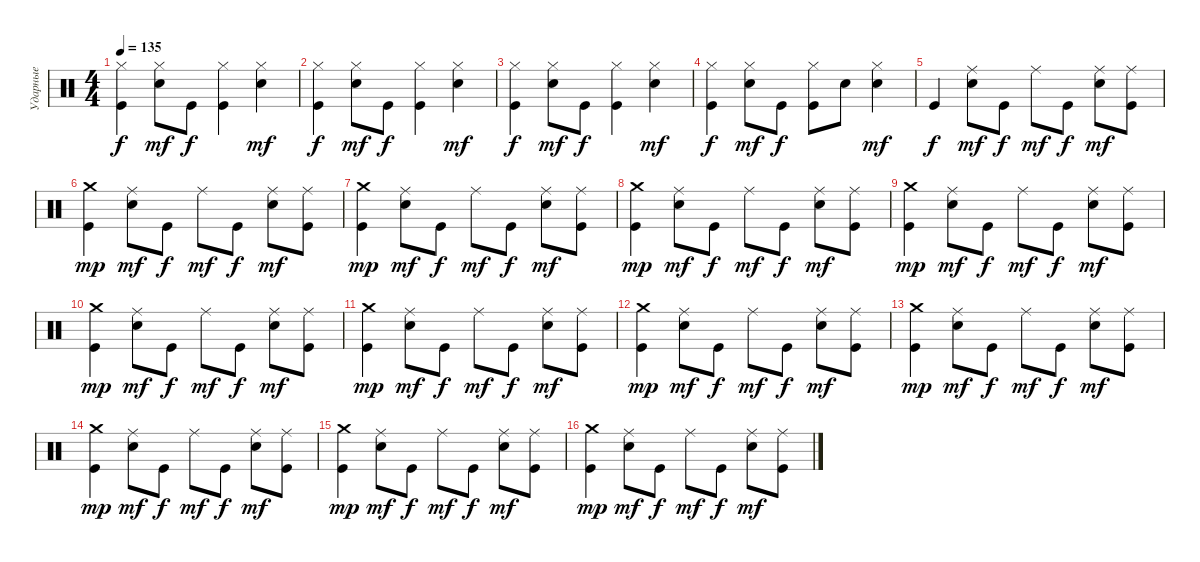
\track ("Ударные" "Ударные") {instrument percussion}
\staff {score}
\articulation defaults
\ts (4 4)
\tempo 135
\clef neutral
\ks c
("Hi-Hat (closed)" "Kick (hit)").4{dy f} ("Hi-Hat (closed)" "Electric Snare (hit)").8{dy mf} "Kick (hit)".8{dy f} ("Hi-Hat (closed)" "Kick (hit)").4 ("Hi-Hat (closed)" "Electric Snare (hit)").4{dy mf} |
("Hi-Hat (closed)" "Kick (hit)").4{dy f} ("Hi-Hat (closed)" "Electric Snare (hit)").8{dy mf} "Kick (hit)".8{dy f} ("Hi-Hat (closed)" "Kick (hit)").4 ("Hi-Hat (closed)" "Electric Snare (hit)").4{dy mf} |
("Hi-Hat (closed)" "Kick (hit)").4{dy f} ("Hi-Hat (closed)" "Electric Snare (hit)").8{dy mf} "Kick (hit)".8{dy f} ("Hi-Hat (closed)" "Kick (hit)").4 ("Hi-Hat (closed)" "Electric Snare (hit)").4{dy mf} |
("Hi-Hat (closed)" "Kick (hit)").4{dy f} ("Hi-Hat (closed)" "Electric Snare (hit)").8{dy mf} "Kick (hit)".8{dy f} ("Hi-Hat (closed)" "Kick (hit)").8 "Electric Snare (hit)".8 ("Hi-Hat (closed)" "Electric Snare (hit)").4{dy mf} |
"Kick (hit)".4{dy f} ("Ride (middle)" "Electric Snare (hit)").8{dy mf} "Kick (hit)".8{dy f} "Ride (middle)".8{dy mf} "Kick (hit)".8{dy f} ("Ride (middle)" "Electric Snare (hit)").8{dy mf} ("Ride (middle)" "Kick (hit)").8 |
("Crash medium (hit)" "Kick (hit)").4{dy mp} ("Ride (middle)" "Electric Snare (hit)").8{dy mf} "Kick (hit)".8{dy f} "Ride (middle)".8{dy mf} "Kick (hit)".8{dy f} ("Ride (middle)" "Electric Snare (hit)").8{dy mf} ("Ride (middle)" "Kick (hit)").8 |
("Crash medium (hit)" "Kick (hit)").4{dy mp} ("Ride (middle)" "Electric Snare (hit)").8{dy mf} "Kick (hit)".8{dy f} "Ride (middle)".8{dy mf} "Kick (hit)".8{dy f} ("Ride (middle)" "Electric Snare (hit)").8{dy mf} ("Ride (middle)" "Kick (hit)").8 |
("Crash medium (hit)" "Kick (hit)").4{dy mp} ("Ride (middle)" "Electric Snare (hit)").8{dy mf} "Kick (hit)".8{dy f} "Ride (middle)".8{dy mf} "Kick (hit)".8{dy f} ("Ride (middle)" "Electric Snare (hit)").8{dy mf} ("Ride (middle)" "Kick (hit)").8 |
("Crash medium (hit)" "Kick (hit)").4{dy mp} ("Ride (middle)" "Electric Snare (hit)").8{dy mf} "Kick (hit)".8{dy f} "Ride (middle)".8{dy mf} "Kick (hit)".8{dy f} ("Ride (middle)" "Electric Snare (hit)").8{dy mf} ("Ride (middle)" "Kick (hit)").8 |
("Crash medium (hit)" "Kick (hit)").4{dy mp} ("Ride (middle)" "Electric Snare (hit)").8{dy mf} "Kick (hit)".8{dy f} "Ride (middle)".8{dy mf} "Kick (hit)".8{dy f} ("Ride (middle)" "Electric Snare (hit)").8{dy mf} ("Ride (middle)" "Kick (hit)").8 |
("Crash medium (hit)" "Kick (hit)").4{dy mp} ("Ride (middle)" "Electric Snare (hit)").8{dy mf} "Kick (hit)".8{dy f} "Ride (middle)".8{dy mf} "Kick (hit)".8{dy f} ("Ride (middle)" "Electric Snare (hit)").8{dy mf} ("Ride (middle)" "Kick (hit)").8 |
("Crash medium (hit)" "Kick (hit)").4{dy mp} ("Ride (middle)" "Electric Snare (hit)").8{dy mf} "Kick (hit)".8{dy f} "Ride (middle)".8{dy mf} "Kick (hit)".8{dy f} ("Ride (middle)" "Electric Snare (hit)").8{dy mf} ("Ride (middle)" "Kick (hit)").8 |
("Crash medium (hit)" "Kick (hit)").4{dy mp} ("Ride (middle)" "Electric Snare (hit)").8{dy mf} "Kick (hit)".8{dy f} "Ride (middle)".8{dy mf} "Kick (hit)".8{dy f} ("Ride (middle)" "Electric Snare (hit)").8{dy mf} ("Ride (middle)" "Kick (hit)").8 |
("Crash medium (hit)" "Kick (hit)").4{dy mp} ("Ride (middle)" "Electric Snare (hit)").8{dy mf} "Kick (hit)".8{dy f} "Ride (middle)".8{dy mf} "Kick (hit)".8{dy f} ("Ride (middle)" "Electric Snare (hit)").8{dy mf} ("Ride (middle)" "Kick (hit)").8 |
("Crash medium (hit)" "Kick (hit)").4{dy mp} ("Ride (middle)" "Electric Snare (hit)").8{dy mf} "Kick (hit)".8{dy f} "Ride (middle)".8{dy mf} "Kick (hit)".8{dy f} ("Ride (middle)" "Electric Snare (hit)").8{dy mf} ("Ride (middle)" "Kick (hit)").8 |
("Crash medium (hit)" "Kick (hit)").4{dy mp} ("Ride (middle)" "Electric Snare (hit)").8{dy mf} "Kick (hit)".8{dy f} "Ride (middle)".8{dy mf} "Kick (hit)".8{dy f} ("Ride (middle)" "Electric Snare (hit)").8{dy mf} ("Ride (middle)" "Kick (hit)").8
